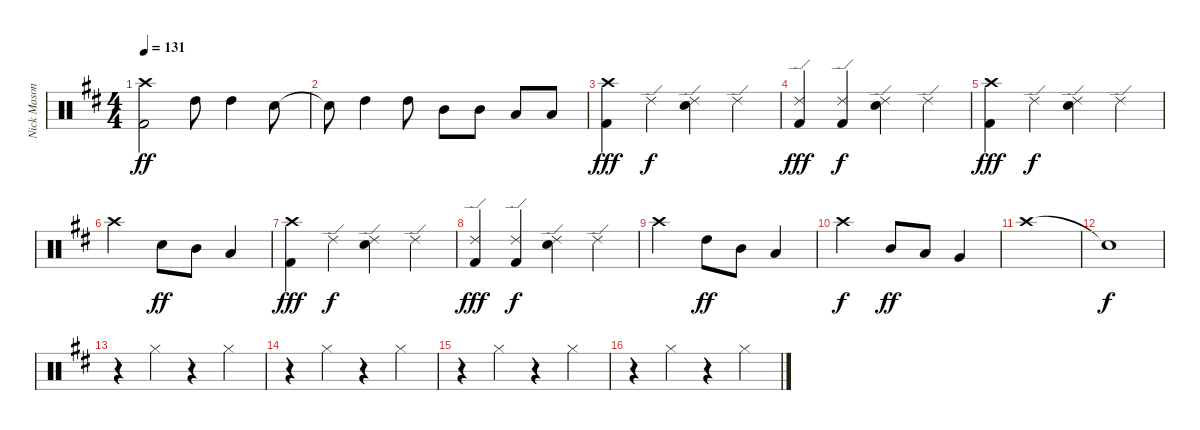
\track ("Nick Mason" "Nick Mason") {instrument percussion}
\staff {score}
\articulation defaults
\ts (4 4)
\tempo 131
\clef neutral
\ks d
("Crash high (hit)" "Kick (hit) 2").2{dy ff} "High Tom (hit)".8 "High Tom (hit)".4 "Electric Snare (hit)".8 |
"Electric Snare (hit)"{t}.8 "High Tom (hit)".4 "High Tom (hit)".8 "Mid Tom (hit)".8 "Mid Tom (hit)".8 "Low Tom (hit)".8 "Low Tom (hit)".8 |
("Crash high (hit)" "Kick (hit) 2").4{dy fff} "Ride (edge) 2".4{dy f} ("Ride (edge) 2" "Electric Snare (hit)").4 "Ride (edge) 2".4 |
("Ride (edge) 2" "Kick (hit) 2").4{dy fff} ("Ride (edge) 2" "Kick (hit) 2").4{dy f} ("Ride (edge) 2" "Electric Snare (hit)").4 "Ride (edge) 2".4 |
("Crash high (hit)" "Kick (hit) 2").4{dy fff} "Ride (edge) 2".4{dy f} ("Ride (edge) 2" "Electric Snare (hit)").4 "Ride (edge) 2".4 |
"Crash high (hit)".2 "Electric Snare (hit)".8{dy ff} "Mid Tom (hit)".8 "Low Tom (hit)".4 |
("Crash high (hit)" "Kick (hit) 2").4{dy fff} "Ride (edge) 2".4{dy f} ("Ride (edge) 2" "Electric Snare (hit)").4 "Ride (edge) 2".4 |
("Ride (edge) 2" "Kick (hit) 2").4{dy fff} ("Ride (edge) 2" "Kick (hit) 2").4{dy f} ("Ride (edge) 2" "Electric Snare (hit)").4 "Ride (edge) 2".4 |
"Crash high (hit)".2 "High Tom (hit)".8{dy ff} "Mid Tom (hit)".8 "Low Tom (hit)".4 |
"Crash high (hit)".2{dy f} "Mid Tom (hit)".8{dy ff} "Low Tom (hit)".8 "Very Low Tom (hit)".4 |
"Crash high (hit)".1 |
"Snare (hit)"{t}.1{dy f} |
r.4{volume 10} "Hi-Hat (closed)".4 r.4 "Hi-Hat (closed)".4 |
r.4 "Hi-Hat (closed)".4 r.4 "Hi-Hat (closed)".4 |
r.4 "Hi-Hat (closed)".4 r.4 "Hi-Hat (closed)".4 |
r.4 "Hi-Hat (closed)".4 r.4 "Hi-Hat (closed)".4
